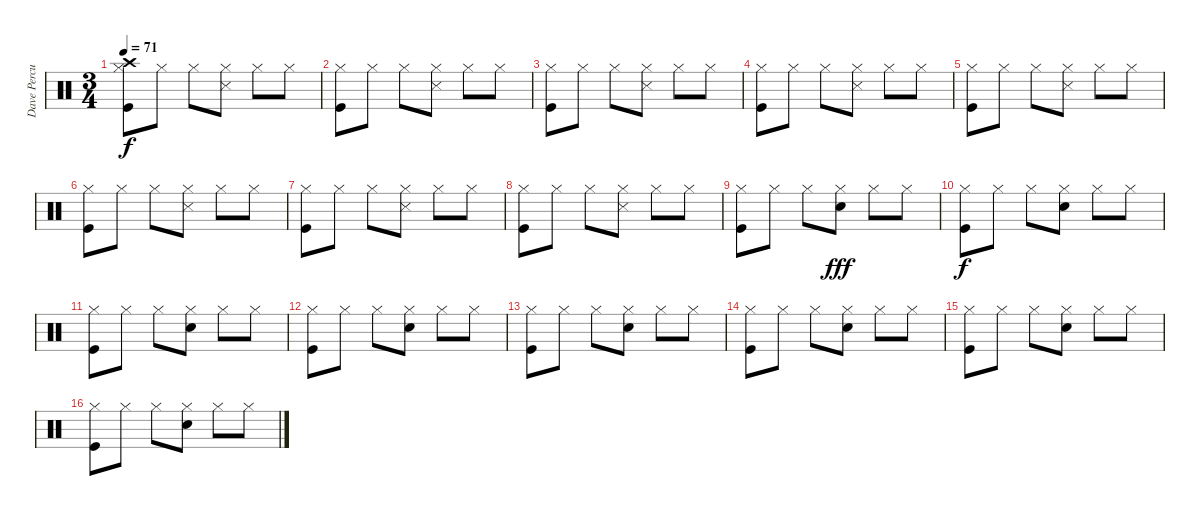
\track ("Dave Percussions" "Dave Percu") {instrument percussion}
\staff {score}
\articulation defaults
\ts (3 4)
\tempo 71
\clef neutral
\ks c
("Hi-Hat (closed)" "Kick (hit)" "Crash high (hit)").8{dy f} "Hi-Hat (closed)".8 "Hi-Hat (closed)".8 ("Hi-Hat (closed)" "Snare (side stick) 3").8 "Hi-Hat (closed)".8 "Hi-Hat (closed)".8 |
("Hi-Hat (closed)" "Kick (hit)").8 "Hi-Hat (closed)".8 "Hi-Hat (closed)".8 ("Hi-Hat (closed)" "Snare (side stick) 3").8 "Hi-Hat (closed)".8 "Hi-Hat (closed)".8 |
("Hi-Hat (closed)" "Kick (hit)").8 "Hi-Hat (closed)".8 "Hi-Hat (closed)".8 ("Hi-Hat (closed)" "Snare (side stick) 3").8 "Hi-Hat (closed)".8 "Hi-Hat (closed)".8 |
("Hi-Hat (closed)" "Kick (hit)").8 "Hi-Hat (closed)".8 "Hi-Hat (closed)".8 ("Hi-Hat (closed)" "Snare (side stick) 3").8 "Hi-Hat (closed)".8 "Hi-Hat (closed)".8 |
("Hi-Hat (closed)" "Kick (hit)").8 "Hi-Hat (closed)".8 "Hi-Hat (closed)".8 ("Hi-Hat (closed)" "Snare (side stick) 3").8 "Hi-Hat (closed)".8 "Hi-Hat (closed)".8 |
("Hi-Hat (closed)" "Kick (hit)").8 "Hi-Hat (closed)".8 "Hi-Hat (closed)".8 ("Hi-Hat (closed)" "Snare (side stick) 3").8 "Hi-Hat (closed)".8 "Hi-Hat (closed)".8 |
("Hi-Hat (closed)" "Kick (hit)").8 "Hi-Hat (closed)".8 "Hi-Hat (closed)".8 ("Hi-Hat (closed)" "Snare (side stick) 3").8 "Hi-Hat (closed)".8 "Hi-Hat (closed)".8 |
("Hi-Hat (closed)" "Kick (hit)").8 "Hi-Hat (closed)".8 "Hi-Hat (closed)".8 ("Hi-Hat (closed)" "Snare (side stick) 3").8 "Hi-Hat (closed)".8 "Hi-Hat (closed)".8 |
("Hi-Hat (closed)" "Kick (hit)").8 "Hi-Hat (closed)".8 "Hi-Hat (closed)".8 ("Hi-Hat (closed)" "Snare (hit) 2").8{dy fff} "Hi-Hat (closed)".8 "Hi-Hat (closed)".8 |
("Hi-Hat (closed)" "Kick (hit)").8{dy f} "Hi-Hat (closed)".8 "Hi-Hat (closed)".8 ("Hi-Hat (closed)" "Snare (hit) 2").8 "Hi-Hat (closed)".8 "Hi-Hat (closed)".8 |
("Hi-Hat (closed)" "Kick (hit)").8 "Hi-Hat (closed)".8 "Hi-Hat (closed)".8 ("Hi-Hat (closed)" "Snare (hit) 2").8 "Hi-Hat (closed)".8 "Hi-Hat (closed)".8 |
("Hi-Hat (closed)" "Kick (hit)").8 "Hi-Hat (closed)".8 "Hi-Hat (closed)".8 ("Hi-Hat (closed)" "Snare (hit) 2").8 "Hi-Hat (closed)".8 "Hi-Hat (closed)".8 |
("Hi-Hat (closed)" "Kick (hit)").8 "Hi-Hat (closed)".8 "Hi-Hat (closed)".8 ("Hi-Hat (closed)" "Snare (hit) 2").8 "Hi-Hat (closed)".8 "Hi-Hat (closed)".8 |
("Hi-Hat (closed)" "Kick (hit)").8 "Hi-Hat (closed)".8 "Hi-Hat (closed)".8 ("Hi-Hat (closed)" "Snare (hit) 2").8 "Hi-Hat (closed)".8 "Hi-Hat (closed)".8 |
("Hi-Hat (closed)" "Kick (hit)").8 "Hi-Hat (closed)".8 "Hi-Hat (closed)".8 ("Hi-Hat (closed)" "Snare (hit) 2").8 "Hi-Hat (closed)".8 "Hi-Hat (closed)".8 |
("Hi-Hat (closed)" "Kick (hit)").8 "Hi-Hat (closed)".8 "Hi-Hat (closed)".8 ("Hi-Hat (closed)" "Snare (hit) 2").8 "Hi-Hat (closed)".8 "Hi-Hat (closed)".8
